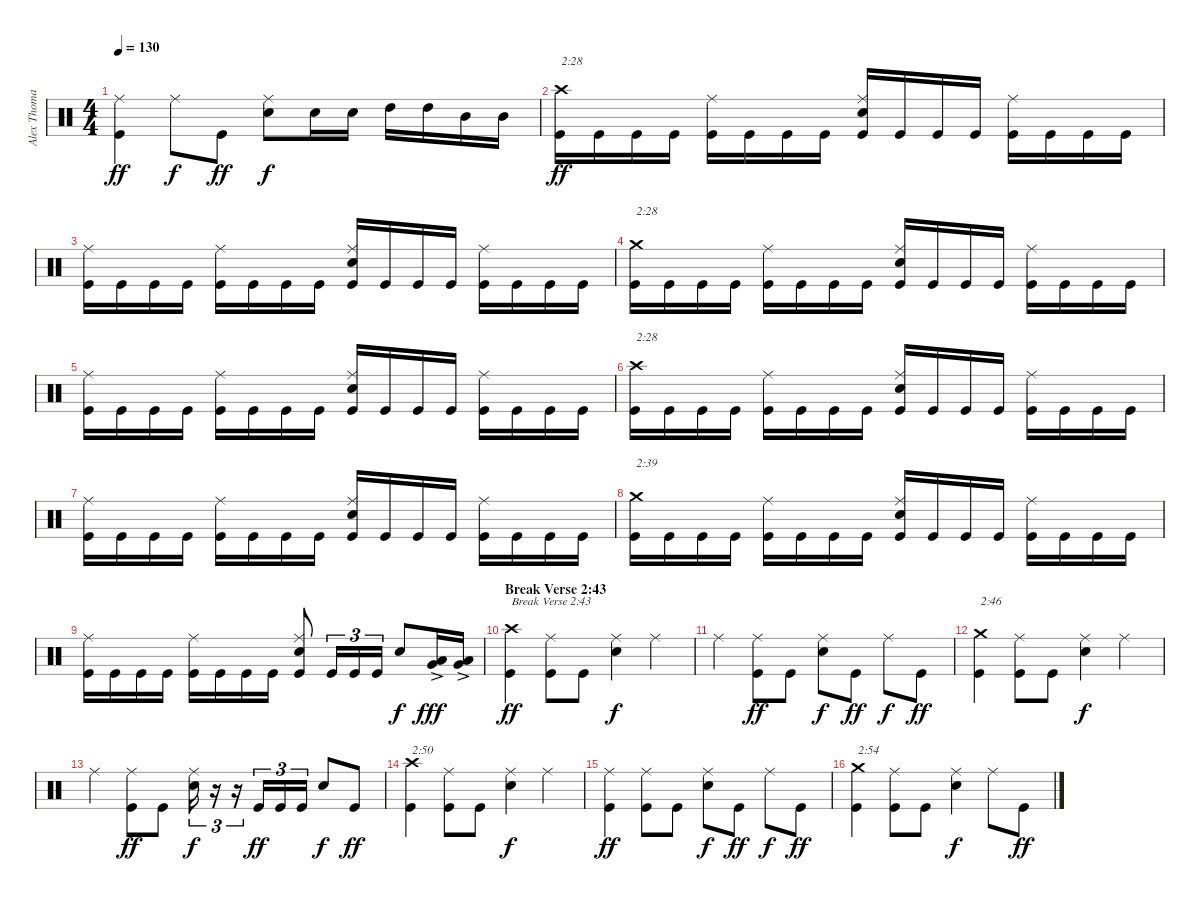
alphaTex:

\track ("Alex Thomas (Drums)" "Alex Thoma") {instrument percussion}
\staff {score}
\articulation defaults
\ts (4 4)
\tempo 130
\clef neutral
\ks c
("Kick (hit)" "Ride (middle)").4{dy ff} "Ride (middle)".8{dy f} "Kick (hit)".8{dy ff} ("Electric Snare (hit)" "Ride (middle)").8{dy f} "Electric Snare (hit)".16 "Electric Snare (hit)".16 "High Tom (hit)".16 "High Tom (hit)".16 "Mid Tom (hit)".16 "Mid Tom (hit)".16 |
("Kick (hit)" "Crash high (hit)").16{txt "2:28" dy ff} "Kick (hit)".16 "Kick (hit)".16 "Kick (hit)".16 ("Kick (hit)" "Ride (middle)").16 "Kick (hit)".16 "Kick (hit)".16 "Kick (hit)".16 ("Kick (hit)" "Electric Snare (hit)" "Ride (middle)").16 "Kick (hit)".16 "Kick (hit)".16 "Kick (hit)".16 ("Kick (hit)" "Ride (middle)").16 "Kick (hit)".16 "Kick (hit)".16 "Kick (hit)".16 |
("Kick (hit)" "Ride (middle)").16 "Kick (hit)".16 "Kick (hit)".16 "Kick (hit)".16 ("Kick (hit)" "Ride (middle)").16 "Kick (hit)".16 "Kick (hit)".16 "Kick (hit)".16 ("Kick (hit)" "Electric Snare (hit)" "Ride (middle)").16 "Kick (hit)".16 "Kick (hit)".16 "Kick (hit)".16 ("Kick (hit)" "Ride (middle)").16 "Kick (hit)".16 "Kick (hit)".16 "Kick (hit)".16 |
("Kick (hit)" "Crash medium (hit)").16{txt "2:28"} "Kick (hit)".16 "Kick (hit)".16 "Kick (hit)".16 ("Kick (hit)" "Ride (middle)").16 "Kick (hit)".16 "Kick (hit)".16 "Kick (hit)".16 ("Kick (hit)" "Electric Snare (hit)" "Ride (middle)").16 "Kick (hit)".16 "Kick (hit)".16 "Kick (hit)".16 ("Kick (hit)" "Ride (middle)").16 "Kick (hit)".16 "Kick (hit)".16 "Kick (hit)".16 |
("Kick (hit)" "Ride (middle)").16 "Kick (hit)".16 "Kick (hit)".16 "Kick (hit)".16 ("Kick (hit)" "Ride (middle)").16 "Kick (hit)".16 "Kick (hit)".16 "Kick (hit)".16 ("Kick (hit)" "Electric Snare (hit)" "Ride (middle)").16 "Kick (hit)".16 "Kick (hit)".16 "Kick (hit)".16 ("Kick (hit)" "Ride (middle)").16 "Kick (hit)".16 "Kick (hit)".16 "Kick (hit)".16 |
("Kick (hit)" "Crash high (hit)").16{txt "2:28"} "Kick (hit)".16 "Kick (hit)".16 "Kick (hit)".16 ("Kick (hit)" "Ride (middle)").16 "Kick (hit)".16 "Kick (hit)".16 "Kick (hit)".16 ("Kick (hit)" "Electric Snare (hit)" "Ride (middle)").16 "Kick (hit)".16 "Kick (hit)".16 "Kick (hit)".16 ("Kick (hit)" "Ride (middle)").16 "Kick (hit)".16 "Kick (hit)".16 "Kick (hit)".16 |
("Kick (hit)" "Ride (middle)").16 "Kick (hit)".16 "Kick (hit)".16 "Kick (hit)".16 ("Kick (hit)" "Ride (middle)").16 "Kick (hit)".16 "Kick (hit)".16 "Kick (hit)".16 ("Kick (hit)" "Electric Snare (hit)" "Ride (middle)").16 "Kick (hit)".16 "Kick (hit)".16 "Kick (hit)".16 ("Kick (hit)" "Ride (middle)").16 "Kick (hit)".16 "Kick (hit)".16 "Kick (hit)".16 |
("Kick (hit)" "Crash medium (hit)").16{txt "2:39"} "Kick (hit)".16 "Kick (hit)".16 "Kick (hit)".16 ("Kick (hit)" "Ride (middle)").16 "Kick (hit)".16 "Kick (hit)".16 "Kick (hit)".16 ("Kick (hit)" "Electric Snare (hit)" "Ride (middle)").16 "Kick (hit)".16 "Kick (hit)".16 "Kick (hit)".16 ("Kick (hit)" "Ride (middle)").16 "Kick (hit)".16 "Kick (hit)".16 "Kick (hit)".16 |
("Kick (hit)" "Ride (middle)").16 "Kick (hit)".16 "Kick (hit)".16 "Kick (hit)".16 ("Kick (hit)" "Ride (middle)").16 "Kick (hit)".16 "Kick (hit)".16 "Kick (hit)".16 ("Kick (hit)" "Electric Snare (hit)" "Ride (middle)").8 "Kick (hit)".16{tu (3 2)} "Kick (hit)".16{tu (3 2)} "Kick (hit)".16{tu (3 2)} "Electric Snare (hit)".8{dy f} ("Low Tom (hit)"{ac} "Very Low Tom (hit)"{ac}).16{dy fff} ("Low Tom (hit)"{ac} "Very Low Tom (hit)"{ac}).16 |
\section ("" "Break Verse 2:43")
("Kick (hit)" "Crash high (hit)").4{txt "Break Verse 2:43" dy ff} ("Kick (hit)" "Ride (middle)").8 "Kick (hit)".8 ("Electric Snare (hit)" "Ride (middle)").4{dy f} "Ride (middle)".4 |
"Ride (middle)".4 ("Kick (hit)" "Ride (middle)").8{dy ff} "Kick (hit)".8 ("Electric Snare (hit)" "Ride (middle)").8{dy f} "Kick (hit)".8{dy ff} "Ride (middle)".8{dy f} "Kick (hit)".8{dy ff} |
("Kick (hit)" "Crash medium (hit)").4{txt "2:46"} ("Kick (hit)" "Ride (middle)").8 "Kick (hit)".8 ("Electric Snare (hit)" "Ride (middle)").4{dy f} "Ride (middle)".4 |
"Ride (middle)".4 ("Kick (hit)" "Ride (middle)").8{dy ff} "Kick (hit)".8 ("Electric Snare (hit)" "Ride (middle)").16{tu (3 2) dy f} r.16{tu (3 2)} r.16{tu (3 2)} "Kick (hit)".16{tu (3 2) dy ff} "Kick (hit)".16{tu (3 2)} "Kick (hit)".16{tu (3 2)} "Electric Snare (hit)".8{dy f} "Kick (hit)".8{dy ff} |
("Kick (hit)" "Crash high (hit)").4{txt "2:50"} ("Kick (hit)" "Ride (middle)").8 "Kick (hit)".8 ("Electric Snare (hit)" "Ride (middle)").4{dy f} "Ride (middle)".4 |
("Kick (hit)" "Ride (middle)").4{dy ff} ("Kick (hit)" "Ride (middle)").8 "Kick (hit)".8 ("Electric Snare (hit)" "Ride (middle)").8{dy f} "Kick (hit)".8{dy ff} "Ride (middle)".8{dy f} "Kick (hit)".8{dy ff} |
("Kick (hit)" "Crash medium (hit)").4{txt "2:54"} ("Kick (hit)" "Ride (middle)").8 "Kick (hit)".8 ("Electric Snare (hit)" "Ride (middle)").4{dy f} "Ride (middle)".8 "Kick (hit)".8{dy ff}
